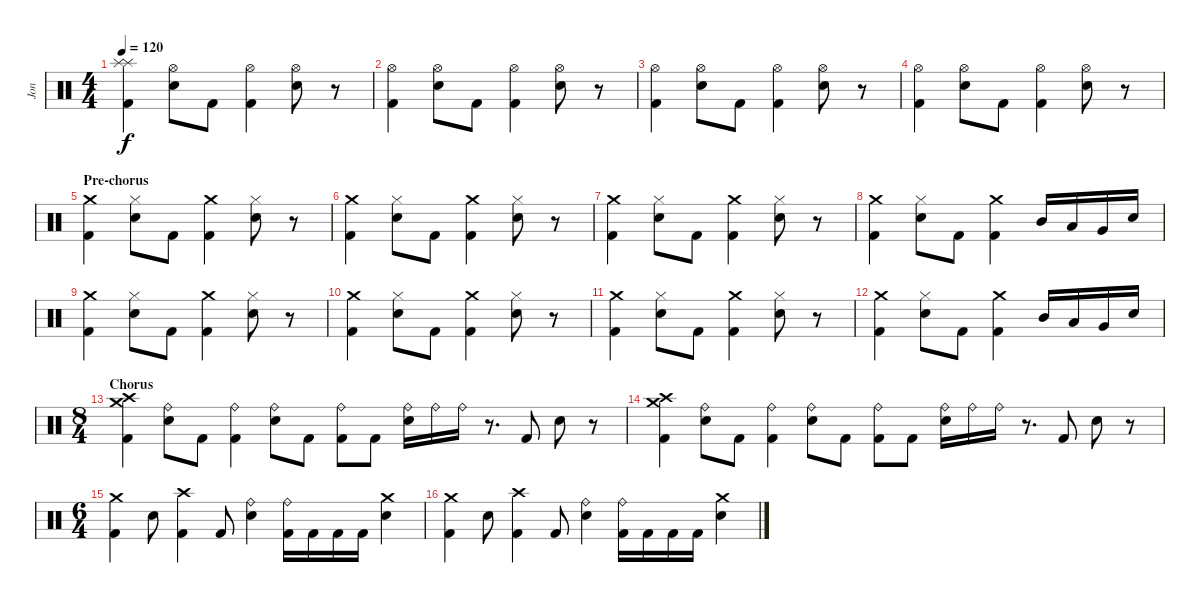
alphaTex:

\track ("Jon" "Jon") {instrument percussion}
\staff {score}
\articulation defaults
\ts (4 4)
\tempo 120
\clef neutral
\ks c
("Splash (hit)" "Splash (hit)" "Kick (hit) 2").4{dy f} ("Snare (hit) 2" "Hi-Hat (open)").8 "Kick (hit) 2".8 ("Hi-Hat (open)" "Kick (hit) 2").4 ("Snare (hit) 2" "Hi-Hat (open)").8 r.8 |
("Hi-Hat (open)" "Kick (hit) 2").4 ("Snare (hit) 2" "Hi-Hat (open)").8 "Kick (hit) 2".8 ("Hi-Hat (open)" "Kick (hit) 2").4 ("Snare (hit) 2" "Hi-Hat (open)").8 r.8 |
("Hi-Hat (open)" "Kick (hit) 2").4 ("Snare (hit) 2" "Hi-Hat (open)").8 "Kick (hit) 2".8 ("Hi-Hat (open)" "Kick (hit) 2").4 ("Snare (hit) 2" "Hi-Hat (open)").8 r.8 |
("Hi-Hat (open)" "Kick (hit) 2").4 ("Snare (hit) 2" "Hi-Hat (open)").8 "Kick (hit) 2".8 ("Hi-Hat (open)" "Kick (hit) 2").4 ("Snare (hit) 2" "Hi-Hat (open)").8 r.8 |
\section ("" "Pre-chorus")
("Crash medium (hit)" "Kick (hit) 2").4 ("Snare (hit) 2" "Hi-Hat (closed)").8 "Kick (hit) 2".8 ("Crash medium (hit)" "Kick (hit) 2").4 ("Snare (hit) 2" "Hi-Hat (closed)").8 r.8 |
("Crash medium (hit)" "Kick (hit) 2").4 ("Snare (hit) 2" "Hi-Hat (closed)").8 "Kick (hit) 2".8 ("Crash medium (hit)" "Kick (hit) 2").4 ("Snare (hit) 2" "Hi-Hat (closed)").8 r.8 |
("Crash medium (hit)" "Kick (hit) 2").4 ("Snare (hit) 2" "Hi-Hat (closed)").8 "Kick (hit) 2".8 ("Crash medium (hit)" "Kick (hit) 2").4 ("Snare (hit) 2" "Hi-Hat (closed)").8 r.8 |
("Crash medium (hit)" "Kick (hit) 2").4 ("Snare (hit) 2" "Hi-Hat (closed)").8 "Kick (hit) 2".8 ("Crash medium (hit)" "Kick (hit) 2").4 "Mid Tom (hit)".16 "Low Tom (hit)".16 "Very Low Tom (hit)".16 "Snare (hit) 2".16 |
("Crash medium (hit)" "Kick (hit) 2").4 ("Snare (hit) 2" "Hi-Hat (closed)").8 "Kick (hit) 2".8 ("Crash medium (hit)" "Kick (hit) 2").4 ("Snare (hit) 2" "Hi-Hat (closed)").8 r.8 |
("Crash medium (hit)" "Kick (hit) 2").4 ("Snare (hit) 2" "Hi-Hat (closed)").8 "Kick (hit) 2".8 ("Crash medium (hit)" "Kick (hit) 2").4 ("Snare (hit) 2" "Hi-Hat (closed)").8 r.8 |
("Crash medium (hit)" "Kick (hit) 2").4 ("Snare (hit) 2" "Hi-Hat (closed)").8 "Kick (hit) 2".8 ("Crash medium (hit)" "Kick (hit) 2").4 ("Snare (hit) 2" "Hi-Hat (closed)").8 r.8 |
("Crash medium (hit)" "Kick (hit) 2").4 ("Snare (hit) 2" "Hi-Hat (closed)").8 "Kick (hit) 2".8 ("Crash medium (hit)" "Kick (hit) 2").4 "Mid Tom (hit)".16 "Low Tom (hit)".16 "Very Low Tom (hit)".16 "Snare (hit) 2".16 |
\ts (8 4)
\section ("" "Chorus")
("Crash medium (hit)" "Crash high (hit)" "Kick (hit) 2").4 ("Ride (bell)" "Snare (hit) 2").8 "Kick (hit) 2".8 ("Ride (bell)" "Kick (hit) 2").4 ("Ride (bell)" "Snare (hit) 2").8 "Kick (hit) 2".8 ("Ride (bell)" "Kick (hit) 2").8 "Kick (hit) 2".8 ("Ride (bell)" "Snare (hit) 2").16 "Ride (bell)".16 "Ride (bell)".16 r.8{d} "Kick (hit) 2".8 "Snare (hit) 2".8 r.8 |
("Crash medium (hit)" "Crash high (hit)" "Kick (hit) 2").4 ("Ride (bell)" "Snare (hit) 2").8 "Kick (hit) 2".8 ("Ride (bell)" "Kick (hit) 2").4 ("Ride (bell)" "Snare (hit) 2").8 "Kick (hit) 2".8 ("Ride (bell)" "Kick (hit) 2").8 "Kick (hit) 2".8 ("Ride (bell)" "Snare (hit) 2").16 "Ride (bell)".16 "Ride (bell)".16 r.8{d} "Kick (hit) 2".8 "Snare (hit) 2".8 r.8 |
\ts (6 4)
("Crash medium (hit)" "Kick (hit) 2").4 "Snare (hit) 2".8 ("Crash high (hit)" "Kick (hit) 2").4 "Kick (hit) 2".8 ("Ride (bell)" "Snare (hit) 2").4 ("Ride (bell)" "Kick (hit) 2").16 "Kick (hit) 2".16 "Kick (hit) 2".16 "Kick (hit) 2".16 ("Crash medium (hit)" "Snare (hit) 2").4 |
("Crash medium (hit)" "Kick (hit) 2").4 "Snare (hit) 2".8 ("Crash high (hit)" "Kick (hit) 2").4 "Kick (hit) 2".8 ("Ride (bell)" "Snare (hit) 2").4 ("Ride (bell)" "Kick (hit) 2").16 "Kick (hit) 2".16 "Kick (hit) 2".16 "Kick (hit) 2".16 ("Crash medium (hit)" "Snare (hit) 2").4
